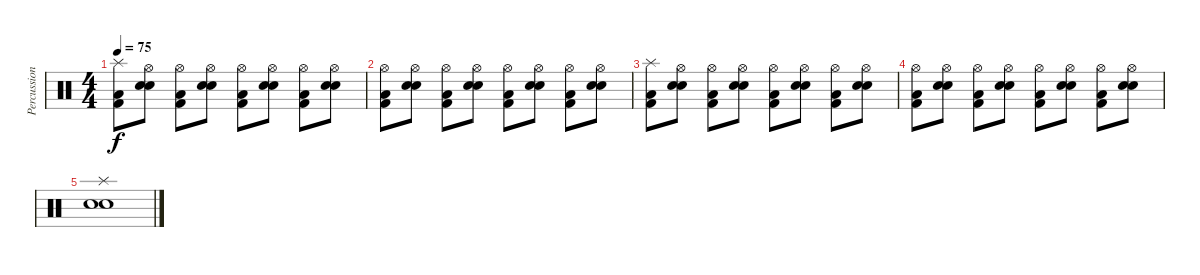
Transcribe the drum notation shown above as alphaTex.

\track ("Percussions" "Percussion") {instrument percussion}
\staff {score}
\articulation defaults
\ts (4 4)
\tempo 75
\clef neutral
\ks c
("Splash (hit)" "Low Floor Tom (hit)" "Kick (hit) 2").8{dy f} ("Electric Snare (hit)" "Snare (hit) 2" "Hi-Hat (open)").8 ("Low Floor Tom (hit)" "Kick (hit) 2" "Hi-Hat (open)").8 ("Electric Snare (hit)" "Snare (hit) 2" "Hi-Hat (open)").8 ("Low Floor Tom (hit)" "Kick (hit) 2" "Hi-Hat (open)").8 ("Electric Snare (hit)" "Snare (hit) 2" "Hi-Hat (open)").8 ("Low Floor Tom (hit)" "Kick (hit) 2" "Hi-Hat (open)").8 ("Electric Snare (hit)" "Snare (hit) 2" "Hi-Hat (open)").8 |
("Low Floor Tom (hit)" "Kick (hit) 2" "Hi-Hat (open)").8 ("Electric Snare (hit)" "Snare (hit) 2" "Hi-Hat (open)").8 ("Low Floor Tom (hit)" "Kick (hit) 2" "Hi-Hat (open)").8 ("Electric Snare (hit)" "Snare (hit) 2" "Hi-Hat (open)").8 ("Low Floor Tom (hit)" "Kick (hit) 2" "Hi-Hat (open)").8 ("Electric Snare (hit)" "Snare (hit) 2" "Hi-Hat (open)").8 ("Low Floor Tom (hit)" "Kick (hit) 2" "Hi-Hat (open)").8 ("Electric Snare (hit)" "Snare (hit) 2" "Hi-Hat (open)").8 |
("Splash (hit)" "Low Floor Tom (hit)" "Kick (hit) 2").8 ("Electric Snare (hit)" "Snare (hit) 2" "Hi-Hat (open)").8 ("Low Floor Tom (hit)" "Kick (hit) 2" "Hi-Hat (open)").8 ("Electric Snare (hit)" "Snare (hit) 2" "Hi-Hat (open)").8 ("Low Floor Tom (hit)" "Kick (hit) 2" "Hi-Hat (open)").8 ("Electric Snare (hit)" "Snare (hit) 2" "Hi-Hat (open)").8 ("Low Floor Tom (hit)" "Kick (hit) 2" "Hi-Hat (open)").8 ("Electric Snare (hit)" "Snare (hit) 2" "Hi-Hat (open)").8 |
("Low Floor Tom (hit)" "Kick (hit) 2" "Hi-Hat (open)").8 ("Electric Snare (hit)" "Snare (hit) 2" "Hi-Hat (open)").8 ("Low Floor Tom (hit)" "Kick (hit) 2" "Hi-Hat (open)").8 ("Electric Snare (hit)" "Snare (hit) 2" "Hi-Hat (open)").8 ("Low Floor Tom (hit)" "Kick (hit) 2" "Hi-Hat (open)").8 ("Electric Snare (hit)" "Snare (hit) 2" "Hi-Hat (open)").8 ("Low Floor Tom (hit)" "Kick (hit) 2" "Hi-Hat (open)").8 ("Electric Snare (hit)" "Snare (hit) 2" "Hi-Hat (open)").8 |
("Splash (hit)" "Electric Snare (hit)" "Snare (hit) 2").1
